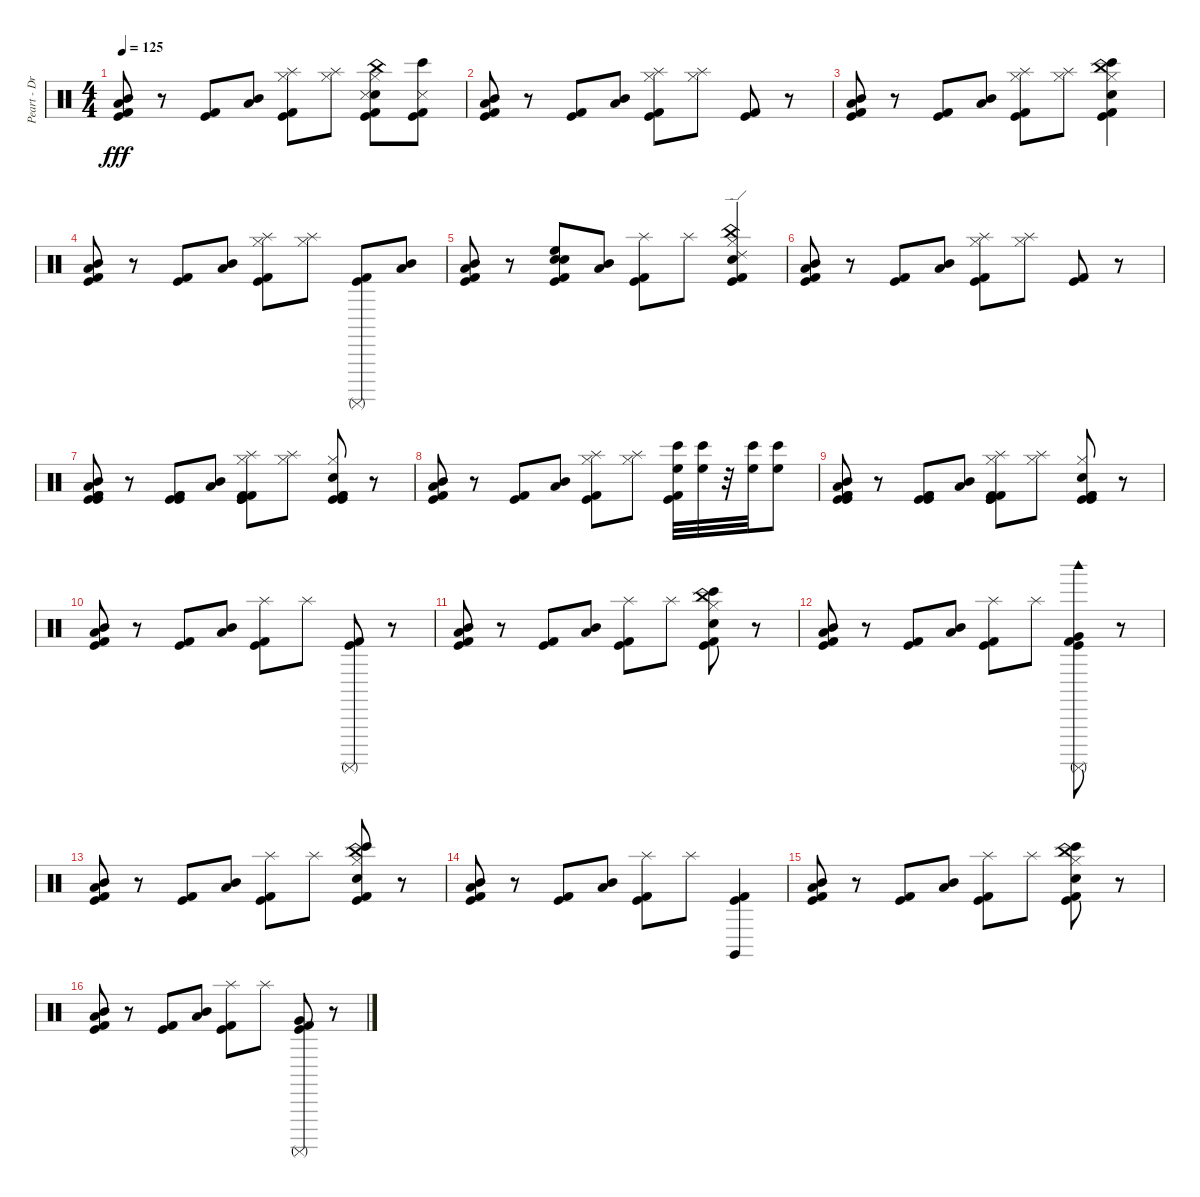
\track ("Peart - Drums" "Peart - Dr") {instrument percussion}
\staff {score}
\articulation defaults
\ts (4 4)
\tempo 125
\clef neutral
\ks c
("Kick (hit) 2" "Low Tom (hit)" "Kick (hit)" "Mid Tom (hit)").8{dy fff} r.8 ("Kick (hit) 2" "Kick (hit)").8 ("Low Tom (hit)" "Mid Tom (hit)").8 ("Kick (hit) 2" "Splash (hit)" "Kick (hit)" "Hi-Hat (closed)").8 ("Splash (hit)" "Hi-Hat (closed)").8 ("Kick (hit) 2" "Kick (hit)" "Hi-Hat (closed)" "Hand Clap (hit)" "China (hit)" "Metronome (hit)").8 ("Metronome (hit)" "Bongo High (hit)" "Kick (hit)" "Kick (hit) 2").8 |
("Kick (hit) 2" "Low Tom (hit)" "Kick (hit)" "Mid Tom (hit)").8 r.8 ("Kick (hit) 2" "Kick (hit)").8 ("Low Tom (hit)" "Mid Tom (hit)").8 ("Kick (hit) 2" "Splash (hit)" "Kick (hit)" "Hi-Hat (closed)").8 ("Splash (hit)" "Hi-Hat (closed)").8 ("Kick (hit) 2" "Kick (hit)").8 r.8 |
("Kick (hit) 2" "Low Tom (hit)" "Kick (hit)" "Mid Tom (hit)").8 r.8 ("Kick (hit) 2" "Kick (hit)").8 ("Low Tom (hit)" "Mid Tom (hit)").8 ("Kick (hit) 2" "Splash (hit)" "Kick (hit)" "Hi-Hat (closed)").8 ("Splash (hit)" "Hi-Hat (closed)").8 ("Kick (hit) 2" "Kick (hit)" "Bongo High (hit)" "Hi-Hat (closed)" "Hand Clap (hit)" "China (hit)").4 |
("Kick (hit)" "Kick (hit) 2" "Low Tom (hit)" "Mid Tom (hit)").8 r.8 ("Kick (hit) 2" "Kick (hit)").8 ("Low Tom (hit)" "Mid Tom (hit)").8 ("Kick (hit) 2" "Kick (hit)" "Splash (hit)" "Hi-Hat (closed)").8 ("Splash (hit)" "Hi-Hat (closed)").8 ("Kick (hit) 2" "Kick (hit)" "Surdo (mute)").8 ("Low Tom (hit)" "Mid Tom (hit)").8 |
("Kick (hit)" "Kick (hit) 2" "Low Tom (hit)" "Mid Tom (hit)").8 r.8 ("Kick (hit) 2" "Kick (hit)" "Snare (hit) 2" "High Floor Tom (hit)" "Electric Snare (hit)").8 ("Low Tom (hit)" "Mid Tom (hit)").8 ("Kick (hit) 2" "Kick (hit)" "Splash (hit)").8 "Splash (hit)".8 ("Kick (hit) 2" "Kick (hit)" "Hand Clap (hit)" "Hi-Hat (closed)" "China (hit)" "Ride (edge) 2").4 |
("Kick (hit) 2" "Kick (hit)" "Low Tom (hit)" "Mid Tom (hit)").8 r.8 ("Kick (hit) 2" "Kick (hit)").8 ("Low Tom (hit)" "Mid Tom (hit)").8 ("Kick (hit) 2" "Kick (hit)" "Splash (hit)" "Hi-Hat (closed)").8 ("Splash (hit)" "Hi-Hat (closed)").8 ("Kick (hit) 2" "Kick (hit)").8 r.8 |
("Kick (hit)" "Kick (hit) 2" "Kick (hit)" "Low Tom (hit)" "Kick (hit) 2" "Mid Tom (hit)").8 r.8 ("Kick (hit) 2" "Kick (hit)" "Kick (hit) 2" "Kick (hit)").8 ("Low Tom (hit)" "Mid Tom (hit)").8 ("Kick (hit) 2" "Kick (hit)" "Kick (hit) 2" "Splash (hit)" "Kick (hit)" "Hi-Hat (closed)").8 ("Splash (hit)" "Hi-Hat (closed)").8 ("Kick (hit) 2" "Kick (hit)" "Kick (hit) 2" "Kick (hit)" "Hi-Hat (closed)" "Hand Clap (hit)").8 r.8 |
("Kick (hit)" "Low Tom (hit)" "Kick (hit) 2" "Mid Tom (hit)").8 r.8 ("Kick (hit) 2" "Kick (hit)").8 ("Low Tom (hit)" "Mid Tom (hit)").8 ("Kick (hit) 2" "Splash (hit)" "Kick (hit)" "Hi-Hat (closed)").8 ("Splash (hit)" "Hi-Hat (closed)").8 ("Kick (hit) 2" "Kick (hit)" "Bongo High (hit)" "High Floor Tom (hit)").32 ("Bongo High (hit)" "High Floor Tom (hit)").32 r.32 ("Bongo High (hit)" "High Floor Tom (hit)").32 ("Bongo High (hit)" "High Floor Tom (hit)").8 |
("Kick (hit) 2" "Low Tom (hit)" "Kick (hit)" "Kick (hit) 2" "Kick (hit)" "Mid Tom (hit)").8 r.8 ("Kick (hit) 2" "Kick (hit)" "Kick (hit) 2" "Kick (hit)").8 ("Low Tom (hit)" "Mid Tom (hit)").8 ("Kick (hit) 2" "Kick (hit)" "Kick (hit) 2" "Splash (hit)" "Kick (hit)" "Hi-Hat (closed)").8 ("Splash (hit)" "Hi-Hat (closed)").8 ("Kick (hit) 2" "Kick (hit)" "Kick (hit) 2" "Kick (hit)" "Hi-Hat (closed)" "Hand Clap (hit)").8 r.8 |
("Kick (hit) 2" "Low Tom (hit)" "Kick (hit)" "Mid Tom (hit)").8 r.8 ("Kick (hit) 2" "Kick (hit)").8 ("Low Tom (hit)" "Mid Tom (hit)").8 ("Kick (hit) 2" "Splash (hit)" "Kick (hit)").8 "Splash (hit)".8 ("Kick (hit) 2" "Kick (hit)" "Surdo (mute)").8 r.8 |
("Kick (hit) 2" "Low Tom (hit)" "Kick (hit)" "Mid Tom (hit)").8 r.8 ("Kick (hit) 2" "Kick (hit)").8 ("Low Tom (hit)" "Mid Tom (hit)").8 ("Kick (hit) 2" "Splash (hit)" "Kick (hit)").8 "Splash (hit)".8 ("Kick (hit) 2" "Kick (hit)" "Bongo High (hit)" "Hi-Hat (closed)" "Hand Clap (hit)" "China (hit)").8 r.8 |
("Kick (hit) 2" "Low Tom (hit)" "Kick (hit)" "Mid Tom (hit)").8 r.8 ("Kick (hit) 2" "Kick (hit)").8 ("Low Tom (hit)" "Mid Tom (hit)").8 ("Kick (hit) 2" "Splash (hit)" "Kick (hit)").8 "Splash (hit)".8 ("Kick (hit) 2" "Very Low Tom (hit)" "Kick (hit)" "Surdo (mute)" "Woodblock high (hit)").8 r.8 |
("Kick (hit) 2" "Low Tom (hit)" "Kick (hit)" "Mid Tom (hit)").8 r.8 ("Kick (hit) 2" "Kick (hit)").8 ("Low Tom (hit)" "Mid Tom (hit)").8 ("Kick (hit) 2" "Splash (hit)" "Kick (hit)").8 "Splash (hit)".8 ("Kick (hit) 2" "Bongo High (hit)" "Hi-Hat (closed)" "Kick (hit)" "China (hit)" "Electric Snare (hit)").8 r.8 |
("Kick (hit)" "Low Tom (hit)" "Kick (hit) 2" "Mid Tom (hit)").8 r.8 ("Kick (hit) 2" "Kick (hit)").8 ("Low Tom (hit)" "Mid Tom (hit)").8 ("Kick (hit) 2" "Splash (hit)" "Kick (hit)").8 "Splash (hit)".8 ("Kick (hit) 2" "Kick (hit)" "Claves (hit)").4 |
("Kick (hit) 2" "Low Tom (hit)" "Kick (hit)" "Mid Tom (hit)").8 r.8 ("Kick (hit) 2" "Kick (hit)").8 ("Low Tom (hit)" "Mid Tom (hit)").8 ("Kick (hit) 2" "Splash (hit)" "Kick (hit)").8 "Splash (hit)".8 ("Kick (hit) 2" "Kick (hit)" "Bongo High (hit)" "Hi-Hat (closed)" "Hand Clap (hit)" "China (hit)").8 r.8 |
("Kick (hit) 2" "Low Tom (hit)" "Kick (hit)" "Mid Tom (hit)").8 r.8 ("Kick (hit) 2" "Kick (hit)").8 ("Low Tom (hit)" "Mid Tom (hit)").8 ("Kick (hit) 2" "Splash (hit)" "Kick (hit)").8 "Splash (hit)".8 ("Kick (hit) 2" "Very Low Tom (hit)" "Kick (hit)" "Surdo (mute)").8 r.8
